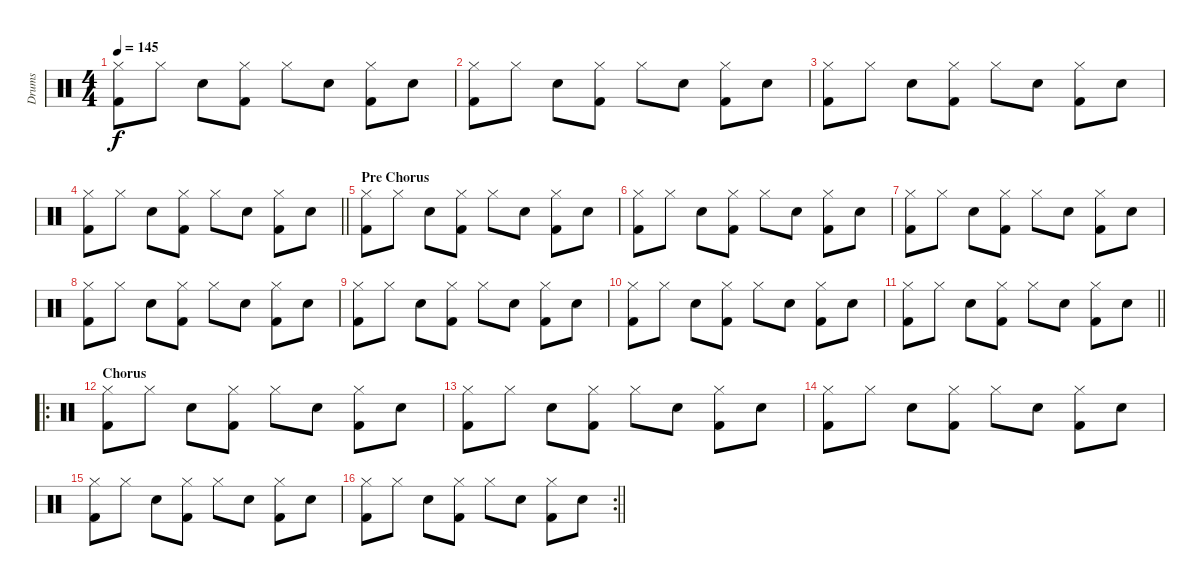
\track ("Drums" "Drums") {instrument percussion}
\staff {score}
\articulation defaults
\ts (4 4)
\tempo 145
\clef neutral
\ks c
("Hi-Hat (closed)" "Kick (hit) 2").8{dy f} "Hi-Hat (closed)".8 "Snare (hit) 2".8 ("Hi-Hat (closed)" "Kick (hit) 2").8 "Hi-Hat (closed)".8 "Snare (hit) 2".8 ("Hi-Hat (closed)" "Kick (hit) 2").8 "Snare (hit) 2".8 |
("Hi-Hat (closed)" "Kick (hit) 2").8 "Hi-Hat (closed)".8 "Snare (hit) 2".8 ("Hi-Hat (closed)" "Kick (hit) 2").8 "Hi-Hat (closed)".8 "Snare (hit) 2".8 ("Hi-Hat (closed)" "Kick (hit) 2").8 "Snare (hit) 2".8 |
("Hi-Hat (closed)" "Kick (hit) 2").8 "Hi-Hat (closed)".8 "Snare (hit) 2".8 ("Hi-Hat (closed)" "Kick (hit) 2").8 "Hi-Hat (closed)".8 "Snare (hit) 2".8 ("Hi-Hat (closed)" "Kick (hit) 2").8 "Snare (hit) 2".8 |
\barLineRight lightlight
("Hi-Hat (closed)" "Kick (hit) 2").8 "Hi-Hat (closed)".8 "Snare (hit) 2".8 ("Hi-Hat (closed)" "Kick (hit) 2").8 "Hi-Hat (closed)".8 "Snare (hit) 2".8 ("Hi-Hat (closed)" "Kick (hit) 2").8 "Snare (hit) 2".8 |
\section ("" "Pre Chorus")
("Hi-Hat (closed)" "Kick (hit) 2").8 "Hi-Hat (closed)".8 "Snare (hit) 2".8 ("Hi-Hat (closed)" "Kick (hit) 2").8 "Hi-Hat (closed)".8 "Snare (hit) 2".8 ("Hi-Hat (closed)" "Kick (hit) 2").8 "Snare (hit) 2".8 |
("Hi-Hat (closed)" "Kick (hit) 2").8 "Hi-Hat (closed)".8 "Snare (hit) 2".8 ("Hi-Hat (closed)" "Kick (hit) 2").8 "Hi-Hat (closed)".8 "Snare (hit) 2".8 ("Hi-Hat (closed)" "Kick (hit) 2").8 "Snare (hit) 2".8 |
("Hi-Hat (closed)" "Kick (hit) 2").8 "Hi-Hat (closed)".8 "Snare (hit) 2".8 ("Hi-Hat (closed)" "Kick (hit) 2").8 "Hi-Hat (closed)".8 "Snare (hit) 2".8 ("Hi-Hat (closed)" "Kick (hit) 2").8 "Snare (hit) 2".8 |
("Hi-Hat (closed)" "Kick (hit) 2").8 "Hi-Hat (closed)".8 "Snare (hit) 2".8 ("Hi-Hat (closed)" "Kick (hit) 2").8 "Hi-Hat (closed)".8 "Snare (hit) 2".8 ("Hi-Hat (closed)" "Kick (hit) 2").8 "Snare (hit) 2".8 |
("Hi-Hat (closed)" "Kick (hit) 2").8 "Hi-Hat (closed)".8 "Snare (hit) 2".8 ("Hi-Hat (closed)" "Kick (hit) 2").8 "Hi-Hat (closed)".8 "Snare (hit) 2".8 ("Hi-Hat (closed)" "Kick (hit) 2").8 "Snare (hit) 2".8 |
("Hi-Hat (closed)" "Kick (hit) 2").8 "Hi-Hat (closed)".8 "Snare (hit) 2".8 ("Hi-Hat (closed)" "Kick (hit) 2").8 "Hi-Hat (closed)".8 "Snare (hit) 2".8 ("Hi-Hat (closed)" "Kick (hit) 2").8 "Snare (hit) 2".8 |
\barLineRight lightlight
("Hi-Hat (closed)" "Kick (hit) 2").8 "Hi-Hat (closed)".8 "Snare (hit) 2".8 ("Hi-Hat (closed)" "Kick (hit) 2").8 "Hi-Hat (closed)".8 "Snare (hit) 2".8 ("Hi-Hat (closed)" "Kick (hit) 2").8 "Snare (hit) 2".8 |
\ro
\section ("" "Chorus")
("Hi-Hat (closed)" "Kick (hit) 2").8 "Hi-Hat (closed)".8 "Snare (hit) 2".8 ("Hi-Hat (closed)" "Kick (hit) 2").8 "Hi-Hat (closed)".8 "Snare (hit) 2".8 ("Hi-Hat (closed)" "Kick (hit) 2").8 "Snare (hit) 2".8 |
("Hi-Hat (closed)" "Kick (hit) 2").8 "Hi-Hat (closed)".8 "Snare (hit) 2".8 ("Hi-Hat (closed)" "Kick (hit) 2").8 "Hi-Hat (closed)".8 "Snare (hit) 2".8 ("Hi-Hat (closed)" "Kick (hit) 2").8 "Snare (hit) 2".8 |
("Hi-Hat (closed)" "Kick (hit) 2").8 "Hi-Hat (closed)".8 "Snare (hit) 2".8 ("Hi-Hat (closed)" "Kick (hit) 2").8 "Hi-Hat (closed)".8 "Snare (hit) 2".8 ("Hi-Hat (closed)" "Kick (hit) 2").8 "Snare (hit) 2".8 |
("Hi-Hat (closed)" "Kick (hit) 2").8 "Hi-Hat (closed)".8 "Snare (hit) 2".8 ("Hi-Hat (closed)" "Kick (hit) 2").8 "Hi-Hat (closed)".8 "Snare (hit) 2".8 ("Hi-Hat (closed)" "Kick (hit) 2").8 "Snare (hit) 2".8 |
\rc 2
\barLineRight lightlight
("Hi-Hat (closed)" "Kick (hit) 2").8 "Hi-Hat (closed)".8 "Snare (hit) 2".8 ("Hi-Hat (closed)" "Kick (hit) 2").8 "Hi-Hat (closed)".8 "Snare (hit) 2".8 ("Hi-Hat (closed)" "Kick (hit) 2").8 "Snare (hit) 2".8
